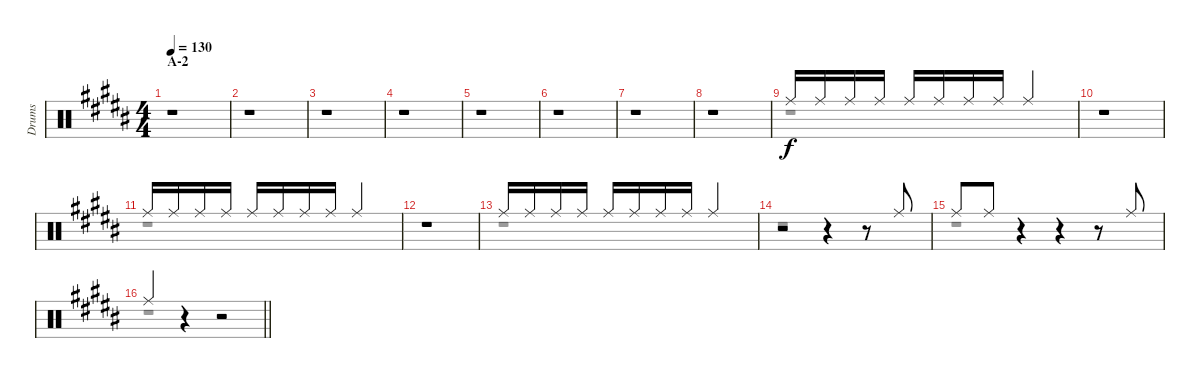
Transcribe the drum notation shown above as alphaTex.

\track ("Drums" "Drums") {instrument percussion}
\staff {score}
\articulation defaults
\voice
\ts (4 4)
\section ("" "A-2")
\tempo 130
\clef neutral
\ks b
r.1{dy fff} |
r.1 |
r.1 |
r.1 |
r.1 |
r.1 |
r.1 |
r.1 |
"Ride (middle)".16{dy f} "Ride (middle)".16 "Ride (middle)".16 "Ride (middle)".16 "Ride (middle)".16 "Ride (middle)".16 "Ride (middle)".16 "Ride (middle)".16 "Ride (middle)".2 |
r.1 |
"Ride (middle)".16 "Ride (middle)".16 "Ride (middle)".16 "Ride (middle)".16 "Ride (middle)".16 "Ride (middle)".16 "Ride (middle)".16 "Ride (middle)".16 "Ride (middle)".2 |
r.1 |
"Ride (middle)".16 "Ride (middle)".16 "Ride (middle)".16 "Ride (middle)".16 "Ride (middle)".16 "Ride (middle)".16 "Ride (middle)".16 "Ride (middle)".16 "Ride (middle)".2 |
r.2 r.4 r.8 "Ride (middle)".8 |
"Ride (middle)".8 "Ride (middle)".8 r.4 r.4 r.8 "Ride (middle)".8 |
\barLineRight lightlight "Ride (middle)".4
r.4 r.2
\voice
\clef neutral
\ottava regular
\simile none
\ks b
r.1{dy fff} |
r.1 |
r.1 |
r.1 |
r.1 |
r.1 |
r.1 |
r.1 |
r.1 |
r.1 |
r.1 |
r.1 |
r.1 |
r.1 |
r.1 |
\barLineRight lightlight
r.1
